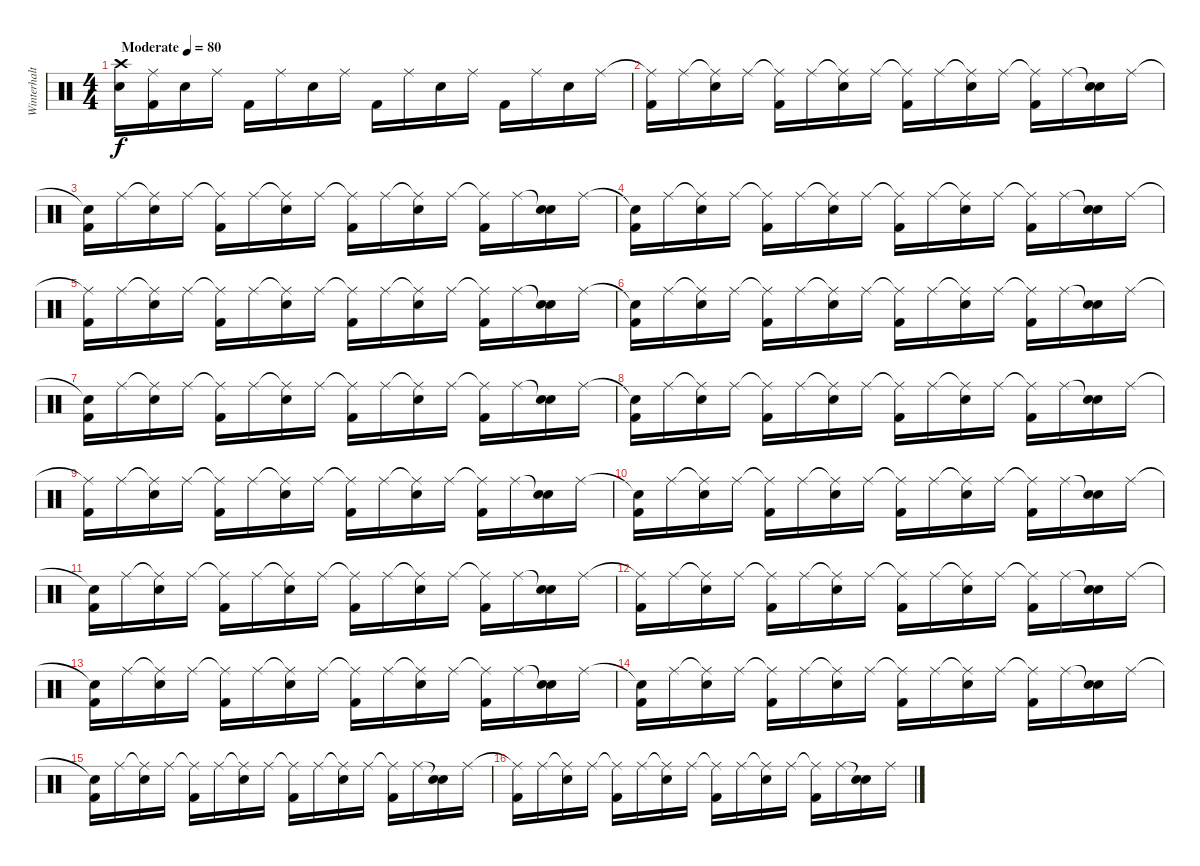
\track ("Winterhalten" "Winterhalt") {instrument percussion}
\staff {score}
\articulation defaults
\ts (4 4)
\tempo (80 "Moderate")
\clef neutral
\ks c
("Crash high (hit)" "Snare (hit) 2").16{dy f} ("Ride (middle)" "Kick (hit) 2").16 "Snare (hit) 2".16 "Ride (middle)".16 "Kick (hit) 2".16 "Ride (middle)".16 "Snare (hit) 2".16 "Ride (middle)".16 "Kick (hit) 2".16 "Ride (middle)".16 "Snare (hit) 2".16 "Ride (middle)".16 "Kick (hit) 2".16 "Ride (middle)".16 "Snare (hit) 2".16 "Ride (middle)".16 |
("Ride (middle)"{t} "Kick (hit) 2").16 "Ride (middle)".16 ("Ride (middle)"{t} "Snare (hit) 2").16 "Ride (middle)".16 ("Ride (middle)"{t} "Kick (hit) 2").16 "Ride (middle)".16 ("Ride (middle)"{t} "Snare (hit) 2").16 "Ride (middle)".16 ("Ride (middle)"{t} "Kick (hit) 2").16 "Ride (middle)".16 ("Ride (middle)"{t} "Snare (hit) 2").16 "Ride (middle)".16 ("Ride (middle)"{t} "Kick (hit) 2").16 "Ride (middle)".16 ("Snare (hit)"{t} "Snare (hit) 2").16 "Ride (middle)".16 |
("Snare (hit)"{t} "Kick (hit) 2").16 "Ride (middle)".16 ("Ride (middle)"{t} "Snare (hit) 2").16 "Ride (middle)".16 ("Ride (middle)"{t} "Kick (hit) 2").16 "Ride (middle)".16 ("Ride (middle)"{t} "Snare (hit) 2").16 "Ride (middle)".16 ("Ride (middle)"{t} "Kick (hit) 2").16 "Ride (middle)".16 ("Ride (middle)"{t} "Snare (hit) 2").16 "Ride (middle)".16 ("Ride (middle)"{t} "Kick (hit) 2").16 "Ride (middle)".16 ("Snare (hit)"{t} "Snare (hit) 2").16 "Ride (middle)".16 |
("Snare (hit)"{t} "Kick (hit) 2").16 "Ride (middle)".16 ("Ride (middle)"{t} "Snare (hit) 2").16 "Ride (middle)".16 ("Ride (middle)"{t} "Kick (hit) 2").16 "Ride (middle)".16 ("Ride (middle)"{t} "Snare (hit) 2").16 "Ride (middle)".16 ("Ride (middle)"{t} "Kick (hit) 2").16 "Ride (middle)".16 ("Ride (middle)"{t} "Snare (hit) 2").16 "Ride (middle)".16 ("Ride (middle)"{t} "Kick (hit) 2").16 "Ride (middle)".16 ("Snare (hit)"{t} "Snare (hit) 2").16 "Ride (middle)".16 |
("Ride (middle)"{t} "Kick (hit) 2").16 "Ride (middle)".16 ("Ride (middle)"{t} "Snare (hit) 2").16 "Ride (middle)".16 ("Ride (middle)"{t} "Kick (hit) 2").16 "Ride (middle)".16 ("Ride (middle)"{t} "Snare (hit) 2").16 "Ride (middle)".16 ("Ride (middle)"{t} "Kick (hit) 2").16 "Ride (middle)".16 ("Ride (middle)"{t} "Snare (hit) 2").16 "Ride (middle)".16 ("Ride (middle)"{t} "Kick (hit) 2").16 "Ride (middle)".16 ("Snare (hit)"{t} "Snare (hit) 2").16 "Ride (middle)".16 |
("Snare (hit)"{t} "Kick (hit) 2").16 "Ride (middle)".16 ("Ride (middle)"{t} "Snare (hit) 2").16 "Ride (middle)".16 ("Ride (middle)"{t} "Kick (hit) 2").16 "Ride (middle)".16 ("Ride (middle)"{t} "Snare (hit) 2").16 "Ride (middle)".16 ("Ride (middle)"{t} "Kick (hit) 2").16 "Ride (middle)".16 ("Ride (middle)"{t} "Snare (hit) 2").16 "Ride (middle)".16 ("Ride (middle)"{t} "Kick (hit) 2").16 "Ride (middle)".16 ("Snare (hit)"{t} "Snare (hit) 2").16 "Ride (middle)".16 |
("Snare (hit)"{t} "Kick (hit) 2").16 "Ride (middle)".16 ("Ride (middle)"{t} "Snare (hit) 2").16 "Ride (middle)".16 ("Ride (middle)"{t} "Kick (hit) 2").16 "Ride (middle)".16 ("Ride (middle)"{t} "Snare (hit) 2").16 "Ride (middle)".16 ("Ride (middle)"{t} "Kick (hit) 2").16 "Ride (middle)".16 ("Ride (middle)"{t} "Snare (hit) 2").16 "Ride (middle)".16 ("Ride (middle)"{t} "Kick (hit) 2").16 "Ride (middle)".16 ("Snare (hit)"{t} "Snare (hit) 2").16 "Ride (middle)".16 |
("Snare (hit)"{t} "Kick (hit) 2").16 "Ride (middle)".16 ("Ride (middle)"{t} "Snare (hit) 2").16 "Ride (middle)".16 ("Ride (middle)"{t} "Kick (hit) 2").16 "Ride (middle)".16 ("Ride (middle)"{t} "Snare (hit) 2").16 "Ride (middle)".16 ("Ride (middle)"{t} "Kick (hit) 2").16 "Ride (middle)".16 ("Ride (middle)"{t} "Snare (hit) 2").16 "Ride (middle)".16 ("Ride (middle)"{t} "Kick (hit) 2").16 "Ride (middle)".16 ("Snare (hit)"{t} "Snare (hit) 2").16 "Ride (middle)".16 |
("Ride (middle)"{t} "Kick (hit) 2").16 "Ride (middle)".16 ("Ride (middle)"{t} "Snare (hit) 2").16 "Ride (middle)".16 ("Ride (middle)"{t} "Kick (hit) 2").16 "Ride (middle)".16 ("Ride (middle)"{t} "Snare (hit) 2").16 "Ride (middle)".16 ("Ride (middle)"{t} "Kick (hit) 2").16 "Ride (middle)".16 ("Ride (middle)"{t} "Snare (hit) 2").16 "Ride (middle)".16 ("Ride (middle)"{t} "Kick (hit) 2").16 "Ride (middle)".16 ("Snare (hit)"{t} "Snare (hit) 2").16 "Ride (middle)".16 |
("Snare (hit)"{t} "Kick (hit) 2").16 "Ride (middle)".16 ("Ride (middle)"{t} "Snare (hit) 2").16 "Ride (middle)".16 ("Ride (middle)"{t} "Kick (hit) 2").16 "Ride (middle)".16 ("Ride (middle)"{t} "Snare (hit) 2").16 "Ride (middle)".16 ("Ride (middle)"{t} "Kick (hit) 2").16 "Ride (middle)".16 ("Ride (middle)"{t} "Snare (hit) 2").16 "Ride (middle)".16 ("Ride (middle)"{t} "Kick (hit) 2").16 "Ride (middle)".16 ("Snare (hit)"{t} "Snare (hit) 2").16 "Ride (middle)".16 |
("Snare (hit)"{t} "Kick (hit) 2").16 "Ride (middle)".16 ("Ride (middle)"{t} "Snare (hit) 2").16 "Ride (middle)".16 ("Ride (middle)"{t} "Kick (hit) 2").16 "Ride (middle)".16 ("Ride (middle)"{t} "Snare (hit) 2").16 "Ride (middle)".16 ("Ride (middle)"{t} "Kick (hit) 2").16 "Ride (middle)".16 ("Ride (middle)"{t} "Snare (hit) 2").16 "Ride (middle)".16 ("Ride (middle)"{t} "Kick (hit) 2").16 "Ride (middle)".16 ("Snare (hit)"{t} "Snare (hit) 2").16 "Ride (middle)".16 |
("Ride (middle)"{t} "Kick (hit) 2").16 "Ride (middle)".16 ("Ride (middle)"{t} "Snare (hit) 2").16 "Ride (middle)".16 ("Ride (middle)"{t} "Kick (hit) 2").16 "Ride (middle)".16 ("Ride (middle)"{t} "Snare (hit) 2").16 "Ride (middle)".16 ("Ride (middle)"{t} "Kick (hit) 2").16 "Ride (middle)".16 ("Ride (middle)"{t} "Snare (hit) 2").16 "Ride (middle)".16 ("Ride (middle)"{t} "Kick (hit) 2").16 "Ride (middle)".16 ("Snare (hit)"{t} "Snare (hit) 2").16 "Ride (middle)".16 |
("Snare (hit)"{t} "Kick (hit) 2").16 "Ride (middle)".16 ("Ride (middle)"{t} "Snare (hit) 2").16 "Ride (middle)".16 ("Ride (middle)"{t} "Kick (hit) 2").16 "Ride (middle)".16 ("Ride (middle)"{t} "Snare (hit) 2").16 "Ride (middle)".16 ("Ride (middle)"{t} "Kick (hit) 2").16 "Ride (middle)".16 ("Ride (middle)"{t} "Snare (hit) 2").16 "Ride (middle)".16 ("Ride (middle)"{t} "Kick (hit) 2").16 "Ride (middle)".16 ("Snare (hit)"{t} "Snare (hit) 2").16 "Ride (middle)".16 |
("Snare (hit)"{t} "Kick (hit) 2").16 "Ride (middle)".16 ("Ride (middle)"{t} "Snare (hit) 2").16 "Ride (middle)".16 ("Ride (middle)"{t} "Kick (hit) 2").16 "Ride (middle)".16 ("Ride (middle)"{t} "Snare (hit) 2").16 "Ride (middle)".16 ("Ride (middle)"{t} "Kick (hit) 2").16 "Ride (middle)".16 ("Ride (middle)"{t} "Snare (hit) 2").16 "Ride (middle)".16 ("Ride (middle)"{t} "Kick (hit) 2").16 "Ride (middle)".16 ("Snare (hit)"{t} "Snare (hit) 2").16 "Ride (middle)".16 |
("Snare (hit)"{t} "Kick (hit) 2").16 "Ride (middle)".16 ("Ride (middle)"{t} "Snare (hit) 2").16 "Ride (middle)".16 ("Ride (middle)"{t} "Kick (hit) 2").16 "Ride (middle)".16 ("Ride (middle)"{t} "Snare (hit) 2").16 "Ride (middle)".16 ("Ride (middle)"{t} "Kick (hit) 2").16 "Ride (middle)".16 ("Ride (middle)"{t} "Snare (hit) 2").16 "Ride (middle)".16 ("Ride (middle)"{t} "Kick (hit) 2").16 "Ride (middle)".16 ("Snare (hit)"{t} "Snare (hit) 2").16 "Ride (middle)".16 |
("Ride (middle)"{t} "Kick (hit) 2").16 "Ride (middle)".16 ("Ride (middle)"{t} "Snare (hit) 2").16 "Ride (middle)".16 ("Ride (middle)"{t} "Kick (hit) 2").16 "Ride (middle)".16 ("Ride (middle)"{t} "Snare (hit) 2").16 "Ride (middle)".16 ("Ride (middle)"{t} "Kick (hit) 2").16 "Ride (middle)".16 ("Ride (middle)"{t} "Snare (hit) 2").16 "Ride (middle)".16 ("Ride (middle)"{t} "Kick (hit) 2").16 "Ride (middle)".16 ("Snare (hit)"{t} "Snare (hit) 2").16 "Ride (middle)".16
